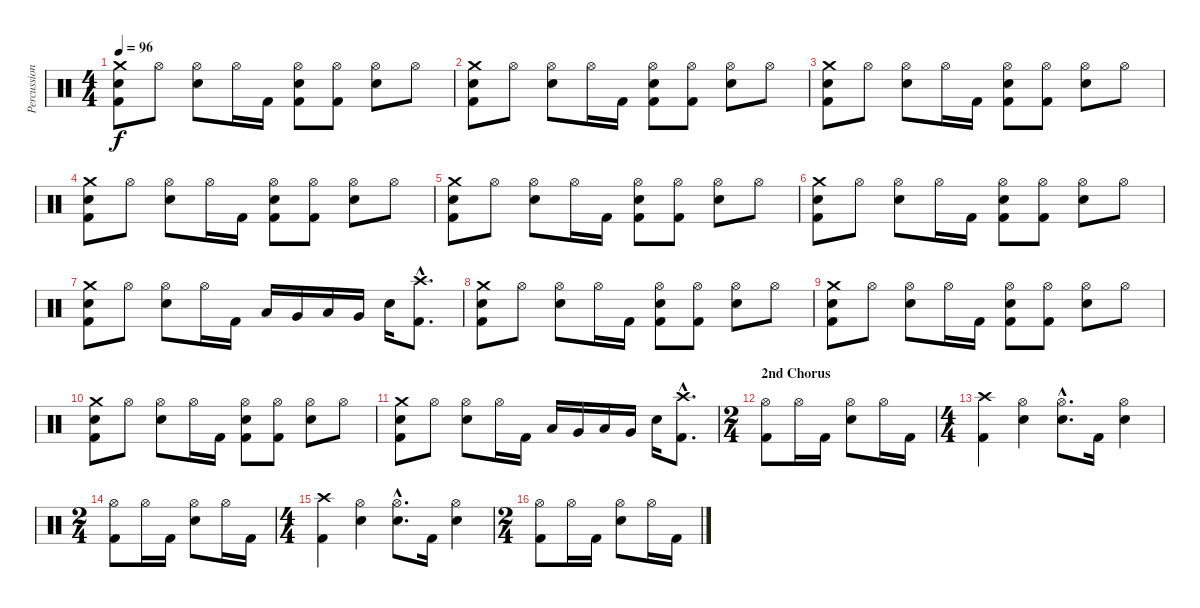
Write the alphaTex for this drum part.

\track ("Percussion" "Percussion") {instrument percussion}
\staff {score}
\articulation defaults
\ts (4 4)
\tempo 96
\clef neutral
\ks c
("Crash medium (hit)" "Snare (hit) 2" "Kick (hit) 2").8{dy f} "Hi-Hat (open)".8 ("Hi-Hat (open)" "Snare (hit) 2").8 "Hi-Hat (open)".16 "Kick (hit) 2".16 ("Hi-Hat (open)" "Snare (hit) 2" "Kick (hit) 2").8 ("Hi-Hat (open)" "Kick (hit) 2").8 ("Hi-Hat (open)" "Snare (hit) 2").8 "Hi-Hat (open)".8 |
("Crash medium (hit)" "Snare (hit) 2" "Kick (hit) 2").8 "Hi-Hat (open)".8 ("Hi-Hat (open)" "Snare (hit) 2").8 "Hi-Hat (open)".16 "Kick (hit) 2".16 ("Hi-Hat (open)" "Snare (hit) 2" "Kick (hit) 2").8 ("Hi-Hat (open)" "Kick (hit) 2").8 ("Hi-Hat (open)" "Snare (hit) 2").8 "Hi-Hat (open)".8 |
("Crash medium (hit)" "Snare (hit) 2" "Kick (hit) 2").8 "Hi-Hat (open)".8 ("Hi-Hat (open)" "Snare (hit) 2").8 "Hi-Hat (open)".16 "Kick (hit) 2".16 ("Hi-Hat (open)" "Snare (hit) 2" "Kick (hit) 2").8 ("Hi-Hat (open)" "Kick (hit) 2").8 ("Hi-Hat (open)" "Snare (hit) 2").8 "Hi-Hat (open)".8 |
("Crash medium (hit)" "Snare (hit) 2" "Kick (hit) 2").8 "Hi-Hat (open)".8 ("Hi-Hat (open)" "Snare (hit) 2").8 "Hi-Hat (open)".16 "Kick (hit) 2".16 ("Hi-Hat (open)" "Snare (hit) 2" "Kick (hit) 2").8 ("Hi-Hat (open)" "Kick (hit) 2").8 ("Hi-Hat (open)" "Snare (hit) 2").8 "Hi-Hat (open)".8 |
("Crash medium (hit)" "Snare (hit) 2" "Kick (hit) 2").8 "Hi-Hat (open)".8 ("Hi-Hat (open)" "Snare (hit) 2").8 "Hi-Hat (open)".16 "Kick (hit) 2".16 ("Hi-Hat (open)" "Snare (hit) 2" "Kick (hit) 2").8 ("Hi-Hat (open)" "Kick (hit) 2").8 ("Hi-Hat (open)" "Snare (hit) 2").8 "Hi-Hat (open)".8 |
("Crash medium (hit)" "Snare (hit) 2" "Kick (hit) 2").8 "Hi-Hat (open)".8 ("Hi-Hat (open)" "Snare (hit) 2").8 "Hi-Hat (open)".16 "Kick (hit) 2".16 ("Hi-Hat (open)" "Snare (hit) 2" "Kick (hit) 2").8 ("Hi-Hat (open)" "Kick (hit) 2").8 ("Hi-Hat (open)" "Snare (hit) 2").8 "Hi-Hat (open)".8 |
("Crash medium (hit)" "Snare (hit) 2" "Kick (hit) 2").8 "Hi-Hat (open)".8 ("Hi-Hat (open)" "Snare (hit) 2").8 "Hi-Hat (open)".16 "Kick (hit) 2".16 "Low Tom (hit)".16 "Very Low Tom (hit)".16 "Low Tom (hit)".16 "Very Low Tom (hit)".16 "Snare (hit) 2".16 ("Crash high (hit)"{hac} "Kick (hit) 2"{hac}).8{d} |
("Crash medium (hit)" "Snare (hit) 2" "Kick (hit) 2").8 "Hi-Hat (open)".8 ("Hi-Hat (open)" "Snare (hit) 2").8 "Hi-Hat (open)".16 "Kick (hit) 2".16 ("Hi-Hat (open)" "Snare (hit) 2" "Kick (hit) 2").8 ("Hi-Hat (open)" "Kick (hit) 2").8 ("Hi-Hat (open)" "Snare (hit) 2").8 "Hi-Hat (open)".8 |
("Crash medium (hit)" "Snare (hit) 2" "Kick (hit) 2").8 "Hi-Hat (open)".8 ("Hi-Hat (open)" "Snare (hit) 2").8 "Hi-Hat (open)".16 "Kick (hit) 2".16 ("Hi-Hat (open)" "Snare (hit) 2" "Kick (hit) 2").8 ("Hi-Hat (open)" "Kick (hit) 2").8 ("Hi-Hat (open)" "Snare (hit) 2").8 "Hi-Hat (open)".8 |
("Crash medium (hit)" "Snare (hit) 2" "Kick (hit) 2").8 "Hi-Hat (open)".8 ("Hi-Hat (open)" "Snare (hit) 2").8 "Hi-Hat (open)".16 "Kick (hit) 2".16 ("Hi-Hat (open)" "Snare (hit) 2" "Kick (hit) 2").8 ("Hi-Hat (open)" "Kick (hit) 2").8 ("Hi-Hat (open)" "Snare (hit) 2").8 "Hi-Hat (open)".8 |
("Crash medium (hit)" "Snare (hit) 2" "Kick (hit) 2").8 "Hi-Hat (open)".8 ("Hi-Hat (open)" "Snare (hit) 2").8 "Hi-Hat (open)".16 "Kick (hit) 2".16 "Low Tom (hit)".16 "Very Low Tom (hit)".16 "Low Tom (hit)".16 "Very Low Tom (hit)".16 "Snare (hit) 2".16 ("Crash high (hit)"{hac} "Kick (hit) 2"{hac}).8{d} |
\ts (2 4)
\section ("" "2nd Chorus")
("Hi-Hat (open)" "Kick (hit) 2").8 "Hi-Hat (open)".16 "Kick (hit) 2".16 ("Hi-Hat (open)" "Snare (hit) 2").8 "Hi-Hat (open)".16 "Kick (hit) 2".16 |
\ts (4 4)
("Crash high (hit)" "Kick (hit) 2").4 ("Hi-Hat (open)" "Snare (hit) 2").4 ("Hi-Hat (open)"{hac} "Snare (hit) 2"{hac}).8{d} "Kick (hit) 2".16 ("Hi-Hat (open)" "Snare (hit) 2").4 |
\ts (2 4)
("Hi-Hat (open)" "Kick (hit) 2").8 "Hi-Hat (open)".16 "Kick (hit) 2".16 ("Hi-Hat (open)" "Snare (hit) 2").8 "Hi-Hat (open)".16 "Kick (hit) 2".16 |
\ts (4 4)
("Crash high (hit)" "Kick (hit) 2").4 ("Hi-Hat (open)" "Snare (hit) 2").4 ("Hi-Hat (open)"{hac} "Snare (hit) 2"{hac}).8{d} "Kick (hit) 2".16 ("Hi-Hat (open)" "Snare (hit) 2").4 |
\ts (2 4)
("Hi-Hat (open)" "Kick (hit) 2").8 "Hi-Hat (open)".16 "Kick (hit) 2".16 ("Hi-Hat (open)" "Snare (hit) 2").8 "Hi-Hat (open)".16 "Kick (hit) 2".16
